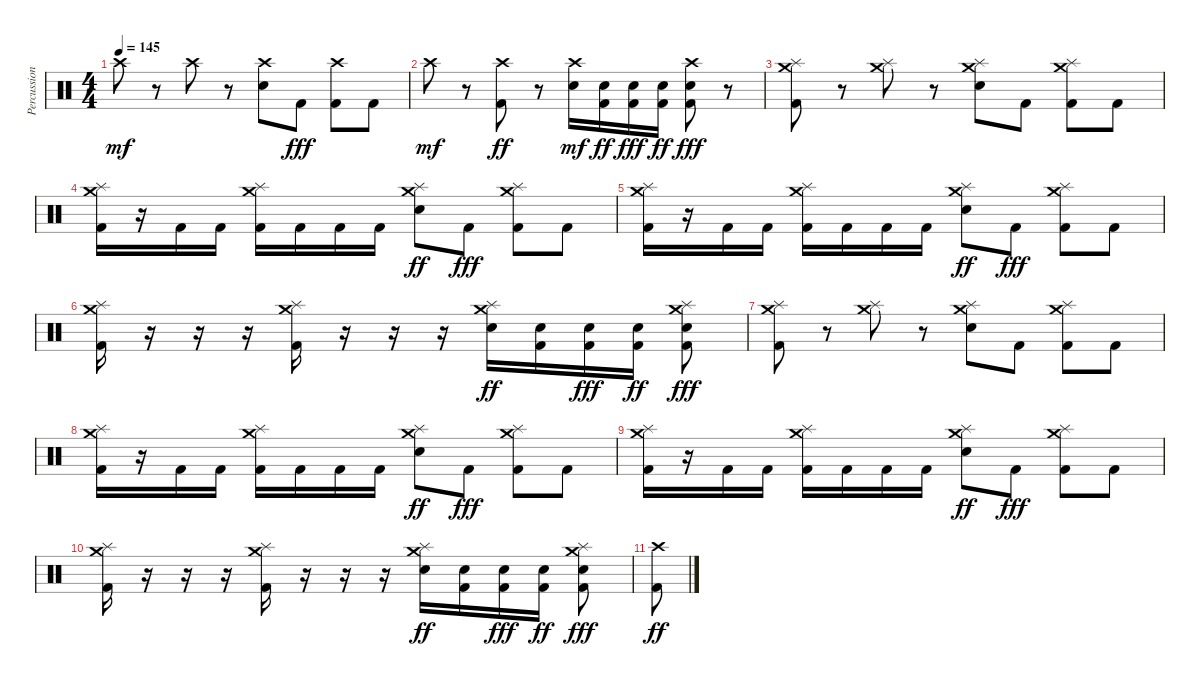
\track ("Percussion" "Percussion") {instrument percussion}
\staff {score}
\articulation defaults
\ts (4 4)
\tempo 145
\clef neutral
\ks c "Crash high (hit)".8{dy mf}
r.8 "Crash high (hit)".8 r.8 ("Crash high (hit)" "Electric Snare (hit)").8 "Kick (hit) 2".8{dy fff} ("Crash high (hit)" "Kick (hit) 2").8 "Kick (hit) 2".8 |
"Crash high (hit)".8{dy mf} r.8 ("Crash high (hit)" "Kick (hit) 2").8{dy ff} r.8 ("Crash high (hit)" "Electric Snare (hit)").16{dy mf} ("Electric Snare (hit)" "Kick (hit) 2").16{dy ff} ("Electric Snare (hit)" "Kick (hit) 2").16{dy fff} ("Electric Snare (hit)" "Kick (hit) 2").16{dy ff} ("Crash high (hit)" "Electric Snare (hit)" "Kick (hit) 2").8{dy fff} r.8 |
("Crash medium (hit)" "Splash (hit)" "Kick (hit) 2").8 r.8 ("Crash medium (hit)" "Splash (hit)").8 r.8 ("Crash medium (hit)" "Splash (hit)" "Electric Snare (hit)").8 "Kick (hit) 2".8 ("Crash medium (hit)" "Splash (hit)" "Kick (hit) 2").8 "Kick (hit) 2".8 |
("Crash medium (hit)" "Splash (hit)" "Kick (hit) 2").16 r.16 "Kick (hit) 2".16 "Kick (hit) 2".16 ("Crash medium (hit)" "Splash (hit)" "Kick (hit) 2").16 "Kick (hit) 2".16 "Kick (hit) 2".16 "Kick (hit) 2".16 ("Crash medium (hit)" "Splash (hit)" "Electric Snare (hit)").8{dy ff} "Kick (hit) 2".8{dy fff} ("Crash medium (hit)" "Splash (hit)" "Kick (hit) 2").8 "Kick (hit) 2".8 |
("Crash medium (hit)" "Splash (hit)" "Kick (hit) 2").16 r.16 "Kick (hit) 2".16 "Kick (hit) 2".16 ("Crash medium (hit)" "Splash (hit)" "Kick (hit) 2").16 "Kick (hit) 2".16 "Kick (hit) 2".16 "Kick (hit) 2".16 ("Crash medium (hit)" "Splash (hit)" "Electric Snare (hit)").8{dy ff} "Kick (hit) 2".8{dy fff} ("Crash medium (hit)" "Splash (hit)" "Kick (hit) 2").8 "Kick (hit) 2".8 |
("Crash medium (hit)" "Splash (hit)" "Kick (hit) 2").16 r.16 r.16 r.16 ("Crash medium (hit)" "Splash (hit)" "Kick (hit) 2").16 r.16 r.16 r.16 ("Crash medium (hit)" "Splash (hit)" "Electric Snare (hit)").16{dy ff} ("Electric Snare (hit)" "Kick (hit) 2").16 ("Electric Snare (hit)" "Kick (hit) 2").16{dy fff} ("Electric Snare (hit)" "Kick (hit) 2").16{dy ff} ("Crash medium (hit)" "Splash (hit)" "Electric Snare (hit)" "Kick (hit) 2").8{dy fff} |
("Crash medium (hit)" "Splash (hit)" "Kick (hit) 2").8 r.8 ("Crash medium (hit)" "Splash (hit)").8 r.8 ("Crash medium (hit)" "Splash (hit)" "Electric Snare (hit)").8 "Kick (hit) 2".8 ("Crash medium (hit)" "Splash (hit)" "Kick (hit) 2").8 "Kick (hit) 2".8 |
("Crash medium (hit)" "Splash (hit)" "Kick (hit) 2").16 r.16 "Kick (hit) 2".16 "Kick (hit) 2".16 ("Crash medium (hit)" "Splash (hit)" "Kick (hit) 2").16 "Kick (hit) 2".16 "Kick (hit) 2".16 "Kick (hit) 2".16 ("Crash medium (hit)" "Splash (hit)" "Electric Snare (hit)").8{dy ff} "Kick (hit) 2".8{dy fff} ("Crash medium (hit)" "Splash (hit)" "Kick (hit) 2").8 "Kick (hit) 2".8 |
("Crash medium (hit)" "Splash (hit)" "Kick (hit) 2").16 r.16 "Kick (hit) 2".16 "Kick (hit) 2".16 ("Crash medium (hit)" "Splash (hit)" "Kick (hit) 2").16 "Kick (hit) 2".16 "Kick (hit) 2".16 "Kick (hit) 2".16 ("Crash medium (hit)" "Splash (hit)" "Electric Snare (hit)").8{dy ff} "Kick (hit) 2".8{dy fff} ("Crash medium (hit)" "Splash (hit)" "Kick (hit) 2").8 "Kick (hit) 2".8 |
("Crash medium (hit)" "Splash (hit)" "Kick (hit) 2").16 r.16 r.16 r.16 ("Crash medium (hit)" "Splash (hit)" "Kick (hit) 2").16 r.16 r.16 r.16 ("Crash medium (hit)" "Splash (hit)" "Electric Snare (hit)").16{dy ff} ("Electric Snare (hit)" "Kick (hit) 2").16 ("Electric Snare (hit)" "Kick (hit) 2").16{dy fff} ("Electric Snare (hit)" "Kick (hit) 2").16{dy ff} ("Crash medium (hit)" "Splash (hit)" "Electric Snare (hit)" "Kick (hit) 2").8{dy fff} |
("Crash high (hit)" "Kick (hit) 2").8{dy ff}
